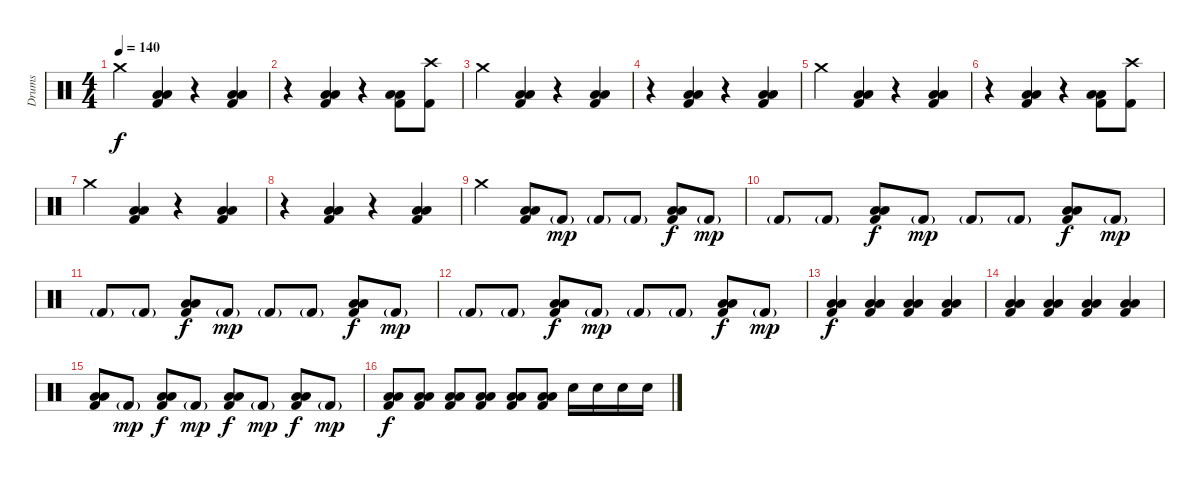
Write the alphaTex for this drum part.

\track ("Drums" "Drums") {instrument percussion}
\staff {score}
\articulation defaults
\ts (4 4)
\tempo 140
\clef neutral
\ks c "Crash medium (hit)".4{dy f}
("Low Floor Tom (hit)" "Low Floor Tom (hit)" "Kick (hit) 2").4 r.4 ("Low Floor Tom (hit)" "Low Floor Tom (hit)" "Kick (hit) 2").4 |
r.4 ("Low Floor Tom (hit)" "Low Floor Tom (hit)" "Kick (hit) 2").4 r.4 ("Low Floor Tom (hit)" "Low Floor Tom (hit)" "Kick (hit) 2").8 ("Crash high (hit)" "Kick (hit) 2").8 |
"Crash medium (hit)".4 ("Low Floor Tom (hit)" "Low Floor Tom (hit)" "Kick (hit) 2").4 r.4 ("Low Floor Tom (hit)" "Low Floor Tom (hit)" "Kick (hit) 2").4 |
r.4 ("Low Floor Tom (hit)" "Low Floor Tom (hit)" "Kick (hit) 2").4 r.4 ("Low Floor Tom (hit)" "Low Floor Tom (hit)" "Kick (hit) 2").4 |
"Crash medium (hit)".4 ("Low Floor Tom (hit)" "Low Floor Tom (hit)" "Kick (hit) 2").4 r.4 ("Low Floor Tom (hit)" "Low Floor Tom (hit)" "Kick (hit) 2").4 |
r.4 ("Low Floor Tom (hit)" "Low Floor Tom (hit)" "Kick (hit) 2").4 r.4 ("Low Floor Tom (hit)" "Low Floor Tom (hit)" "Kick (hit) 2").8 ("Crash high (hit)" "Kick (hit) 2").8 |
"Crash medium (hit)".4 ("Low Floor Tom (hit)" "Low Floor Tom (hit)" "Kick (hit) 2").4 r.4 ("Low Floor Tom (hit)" "Low Floor Tom (hit)" "Kick (hit) 2").4 |
r.4 ("Low Floor Tom (hit)" "Low Floor Tom (hit)" "Kick (hit) 2").4 r.4 ("Low Floor Tom (hit)" "Low Floor Tom (hit)" "Kick (hit) 2").4 |
"Crash medium (hit)".4 ("Low Floor Tom (hit)" "Low Floor Tom (hit)" "Kick (hit) 2").8 "Kick (hit) 2"{g}.8{dy mp} "Kick (hit) 2"{g}.8 "Kick (hit) 2"{g}.8 ("Low Floor Tom (hit)" "Low Floor Tom (hit)" "Kick (hit) 2").8{dy f} "Kick (hit) 2"{g}.8{dy mp} |
"Kick (hit) 2"{g}.8 "Kick (hit) 2"{g}.8 ("Low Floor Tom (hit)" "Low Floor Tom (hit)" "Kick (hit) 2").8{dy f} "Kick (hit) 2"{g}.8{dy mp} "Kick (hit) 2"{g}.8 "Kick (hit) 2"{g}.8 ("Low Floor Tom (hit)" "Low Floor Tom (hit)" "Kick (hit) 2").8{dy f} "Kick (hit) 2"{g}.8{dy mp} |
"Kick (hit) 2"{g}.8 "Kick (hit) 2"{g}.8 ("Low Floor Tom (hit)" "Low Floor Tom (hit)" "Kick (hit) 2").8{dy f} "Kick (hit) 2"{g}.8{dy mp} "Kick (hit) 2"{g}.8 "Kick (hit) 2"{g}.8 ("Low Floor Tom (hit)" "Low Floor Tom (hit)" "Kick (hit) 2").8{dy f} "Kick (hit) 2"{g}.8{dy mp} |
"Kick (hit) 2"{g}.8 "Kick (hit) 2"{g}.8 ("Low Floor Tom (hit)" "Low Floor Tom (hit)" "Kick (hit) 2").8{dy f} "Kick (hit) 2"{g}.8{dy mp} "Kick (hit) 2"{g}.8 "Kick (hit) 2"{g}.8 ("Low Floor Tom (hit)" "Low Floor Tom (hit)" "Kick (hit) 2").8{dy f} "Kick (hit) 2"{g}.8{dy mp} |
("Low Floor Tom (hit)" "Low Floor Tom (hit)" "Kick (hit) 2").4{dy f} ("Low Floor Tom (hit)" "Low Floor Tom (hit)" "Kick (hit) 2").4 ("Low Floor Tom (hit)" "Low Floor Tom (hit)" "Kick (hit) 2").4 ("Low Floor Tom (hit)" "Low Floor Tom (hit)" "Kick (hit) 2").4 |
("Low Floor Tom (hit)" "Low Floor Tom (hit)" "Kick (hit) 2").4 ("Low Floor Tom (hit)" "Low Floor Tom (hit)" "Kick (hit) 2").4 ("Low Floor Tom (hit)" "Low Floor Tom (hit)" "Kick (hit) 2").4 ("Low Floor Tom (hit)" "Low Floor Tom (hit)" "Kick (hit) 2").4 |
("Low Floor Tom (hit)" "Low Floor Tom (hit)" "Kick (hit) 2").8 "Kick (hit) 2"{g}.8{dy mp} ("Low Floor Tom (hit)" "Low Floor Tom (hit)" "Kick (hit) 2").8{dy f} "Kick (hit) 2"{g}.8{dy mp} ("Low Floor Tom (hit)" "Low Floor Tom (hit)" "Kick (hit) 2").8{dy f} "Kick (hit) 2"{g}.8{dy mp} ("Low Floor Tom (hit)" "Low Floor Tom (hit)" "Kick (hit) 2").8{dy f} "Kick (hit) 2"{g}.8{dy mp} |
("Low Floor Tom (hit)" "Low Floor Tom (hit)" "Kick (hit) 2").8{dy f} ("Low Floor Tom (hit)" "Low Floor Tom (hit)" "Kick (hit) 2").8 ("Low Floor Tom (hit)" "Low Floor Tom (hit)" "Kick (hit) 2").8 ("Low Floor Tom (hit)" "Low Floor Tom (hit)" "Kick (hit) 2").8 ("Low Floor Tom (hit)" "Low Floor Tom (hit)" "Kick (hit) 2").8 ("Low Floor Tom (hit)" "Low Floor Tom (hit)" "Kick (hit) 2").8 "Electric Snare (hit)".16 "Electric Snare (hit)".16 "Electric Snare (hit)".16 "Electric Snare (hit)".16
